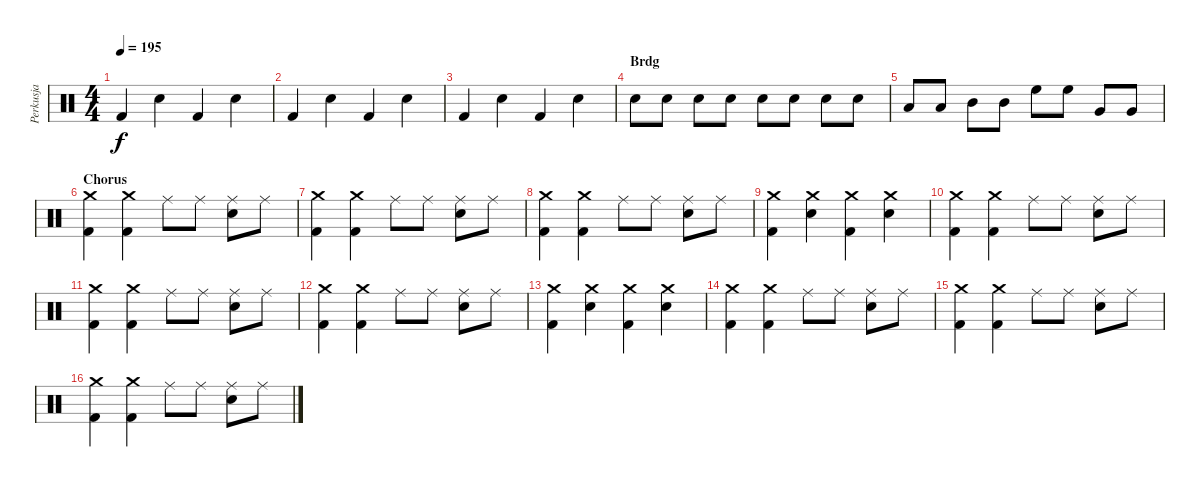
\track ("Perkusja" "Perkusja") {instrument percussion}
\staff {score}
\articulation defaults
\ts (4 4)
\tempo 195
\clef neutral
\ks c "Kick (hit) 2".4{dy f} "Snare (hit) 2".4 "Kick (hit) 2".4 "Snare (hit) 2".4
|
"Kick (hit) 2".4 "Snare (hit) 2".4 "Kick (hit) 2".4 "Snare (hit) 2".4 |
"Kick (hit) 2".4 "Snare (hit) 2".4 "Kick (hit) 2".4 "Snare (hit) 2".4 |
\section ("" "Brdg")
"Snare (hit) 2".8 "Snare (hit) 2".8 "Snare (hit) 2".8 "Snare (hit) 2".8 "Snare (hit) 2".8 "Snare (hit) 2".8 "Snare (hit) 2".8 "Snare (hit) 2".8 |
"Low Tom (hit)".8 "Low Tom (hit)".8 "Mid Tom (hit)".8 "Mid Tom (hit)".8 "High Floor Tom (hit)".8 "High Floor Tom (hit)".8 "Very Low Tom (hit)".8 "Very Low Tom (hit)".8 |
\section ("" "Chorus")
("Crash medium (hit)" "Kick (hit) 2").4 ("Crash medium (hit)" "Kick (hit) 2").4 "Ride (middle)".8 "Ride (middle)".8 ("Ride (middle)" "Snare (hit) 2").8 "Ride (middle)".8 |
("Crash medium (hit)" "Kick (hit) 2").4 ("Crash medium (hit)" "Kick (hit) 2").4 "Ride (middle)".8 "Ride (middle)".8 ("Ride (middle)" "Snare (hit) 2").8 "Ride (middle)".8 |
("Crash medium (hit)" "Kick (hit) 2").4 ("Crash medium (hit)" "Kick (hit) 2").4 "Ride (middle)".8 "Ride (middle)".8 ("Ride (middle)" "Snare (hit) 2").8 "Ride (middle)".8 |
("Crash medium (hit)" "Kick (hit) 2").4 ("Crash medium (hit)" "Snare (hit) 2").4 ("Crash medium (hit)" "Kick (hit) 2").4 ("Crash medium (hit)" "Snare (hit) 2").4 |
("Crash medium (hit)" "Kick (hit) 2").4 ("Crash medium (hit)" "Kick (hit) 2").4 "Ride (middle)".8 "Ride (middle)".8 ("Ride (middle)" "Snare (hit) 2").8 "Ride (middle)".8 |
("Crash medium (hit)" "Kick (hit) 2").4 ("Crash medium (hit)" "Kick (hit) 2").4 "Ride (middle)".8 "Ride (middle)".8 ("Ride (middle)" "Snare (hit) 2").8 "Ride (middle)".8 |
("Crash medium (hit)" "Kick (hit) 2").4 ("Crash medium (hit)" "Kick (hit) 2").4 "Ride (middle)".8 "Ride (middle)".8 ("Ride (middle)" "Snare (hit) 2").8 "Ride (middle)".8 |
("Crash medium (hit)" "Kick (hit) 2").4 ("Crash medium (hit)" "Snare (hit) 2").4 ("Crash medium (hit)" "Kick (hit) 2").4 ("Crash medium (hit)" "Snare (hit) 2").4 |
("Crash medium (hit)" "Kick (hit) 2").4 ("Crash medium (hit)" "Kick (hit) 2").4 "Ride (middle)".8 "Ride (middle)".8 ("Ride (middle)" "Snare (hit) 2").8 "Ride (middle)".8 |
("Crash medium (hit)" "Kick (hit) 2").4 ("Crash medium (hit)" "Kick (hit) 2").4 "Ride (middle)".8 "Ride (middle)".8 ("Ride (middle)" "Snare (hit) 2").8 "Ride (middle)".8 |
("Crash medium (hit)" "Kick (hit) 2").4 ("Crash medium (hit)" "Kick (hit) 2").4 "Ride (middle)".8 "Ride (middle)".8 ("Ride (middle)" "Snare (hit) 2").8 "Ride (middle)".8
